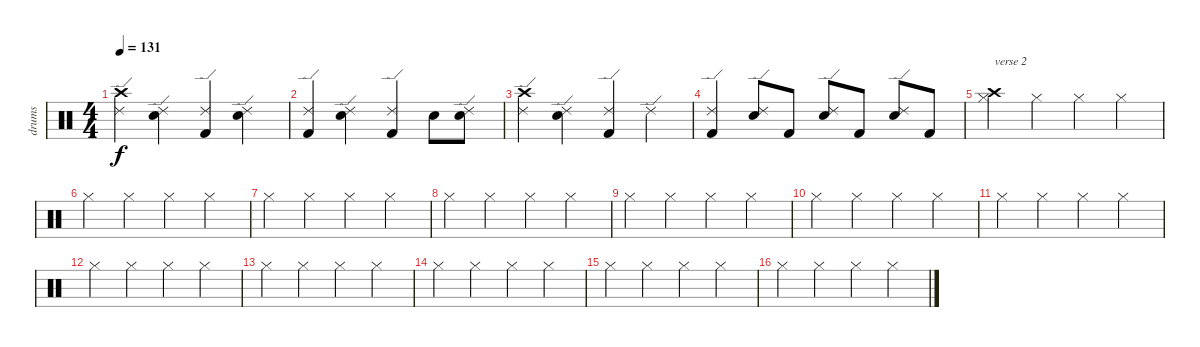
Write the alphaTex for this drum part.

\track ("drums" "drums") {instrument percussion}
\staff {score}
\articulation defaults
\ts (4 4)
\tempo 131
\clef neutral
\ks c
("Crash high (hit)" "Ride (edge) 2").4{dy f} ("Electric Snare (hit)" "Ride (edge) 2").4 ("Kick (hit) 2" "Ride (edge) 2").4 ("Electric Snare (hit)" "Ride (edge) 2").4 |
("Kick (hit) 2" "Ride (edge) 2").4 ("Electric Snare (hit)" "Ride (edge) 2").4 ("Kick (hit) 2" "Ride (edge) 2").4 "Electric Snare (hit)".8 ("Electric Snare (hit)" "Ride (edge) 2").8 |
("Crash high (hit)" "Ride (edge) 2").4 ("Electric Snare (hit)" "Ride (edge) 2").4 ("Kick (hit) 2" "Ride (edge) 2").4 "Ride (edge) 2".4 |
("Kick (hit) 2" "Ride (edge) 2").4 ("Electric Snare (hit)" "Ride (edge) 2").8 "Kick (hit) 2".8 ("Electric Snare (hit)" "Ride (edge) 2").8 "Kick (hit) 2".8 ("Electric Snare (hit)" "Ride (edge) 2").8 "Kick (hit) 2".8 |
("Hi-Hat (closed)" "Crash high (hit)").4{txt "verse 2"} "Hi-Hat (closed)".4 "Hi-Hat (closed)".4 "Hi-Hat (closed)".4 |
"Hi-Hat (closed)".4 "Hi-Hat (closed)".4 "Hi-Hat (closed)".4 "Hi-Hat (closed)".4 |
"Hi-Hat (closed)".4 "Hi-Hat (closed)".4 "Hi-Hat (closed)".4 "Hi-Hat (closed)".4 |
"Hi-Hat (closed)".4 "Hi-Hat (closed)".4 "Hi-Hat (closed)".4 "Hi-Hat (closed)".4 |
"Hi-Hat (closed)".4 "Hi-Hat (closed)".4 "Hi-Hat (closed)".4 "Hi-Hat (closed)".4 |
"Hi-Hat (closed)".4 "Hi-Hat (closed)".4 "Hi-Hat (closed)".4 "Hi-Hat (closed)".4 |
"Hi-Hat (closed)".4 "Hi-Hat (closed)".4 "Hi-Hat (closed)".4 "Hi-Hat (closed)".4 |
"Hi-Hat (closed)".4 "Hi-Hat (closed)".4 "Hi-Hat (closed)".4 "Hi-Hat (closed)".4 |
"Hi-Hat (closed)".4 "Hi-Hat (closed)".4 "Hi-Hat (closed)".4 "Hi-Hat (closed)".4 |
"Hi-Hat (closed)".4 "Hi-Hat (closed)".4 "Hi-Hat (closed)".4 "Hi-Hat (closed)".4 |
"Hi-Hat (closed)".4 "Hi-Hat (closed)".4 "Hi-Hat (closed)".4 "Hi-Hat (closed)".4 |
"Hi-Hat (closed)".4 "Hi-Hat (closed)".4 "Hi-Hat (closed)".4 "Hi-Hat (closed)".4
